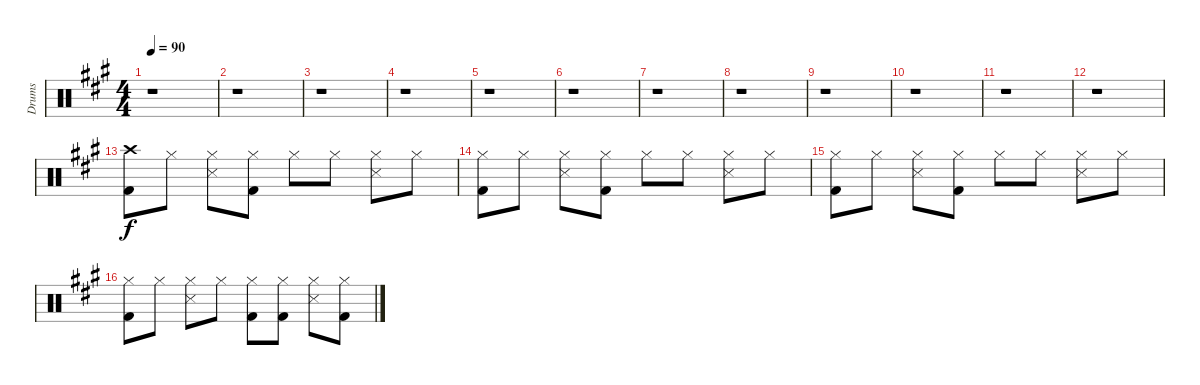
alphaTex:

\track ("Drums" "Drums") {instrument percussion}
\staff {score}
\articulation defaults
\ts (4 4)
\tempo 90
\clef neutral
\ks a
r.1{dy f} |
r.1 |
r.1 |
r.1 |
r.1 |
r.1 |
r.1 |
r.1 |
r.1 |
r.1 |
r.1 |
r.1 |
("Crash high (hit)" "Kick (hit) 2").8 "Hi-Hat (closed)".8 ("Hi-Hat (closed)" "Snare (side stick) 3").8 ("Hi-Hat (closed)" "Kick (hit) 2").8 "Hi-Hat (closed)".8 "Hi-Hat (closed)".8 ("Hi-Hat (closed)" "Snare (side stick) 3").8 "Hi-Hat (closed)".8 |
("Hi-Hat (closed)" "Kick (hit) 2").8 "Hi-Hat (closed)".8 ("Hi-Hat (closed)" "Snare (side stick) 3").8 ("Hi-Hat (closed)" "Kick (hit) 2").8 "Hi-Hat (closed)".8 "Hi-Hat (closed)".8 ("Hi-Hat (closed)" "Snare (side stick) 3").8 "Hi-Hat (closed)".8 |
("Hi-Hat (closed)" "Kick (hit) 2").8 "Hi-Hat (closed)".8 ("Hi-Hat (closed)" "Snare (side stick) 3").8 ("Hi-Hat (closed)" "Kick (hit) 2").8 "Hi-Hat (closed)".8 "Hi-Hat (closed)".8 ("Hi-Hat (closed)" "Snare (side stick) 3").8 "Hi-Hat (closed)".8 |
("Hi-Hat (closed)" "Kick (hit) 2").8 "Hi-Hat (closed)".8 ("Hi-Hat (closed)" "Snare (side stick) 3").8 "Hi-Hat (closed)".8 ("Hi-Hat (closed)" "Kick (hit) 2").8 ("Hi-Hat (closed)" "Kick (hit) 2").8 ("Hi-Hat (closed)" "Snare (side stick) 3").8 ("Hi-Hat (closed)" "Kick (hit) 2").8
